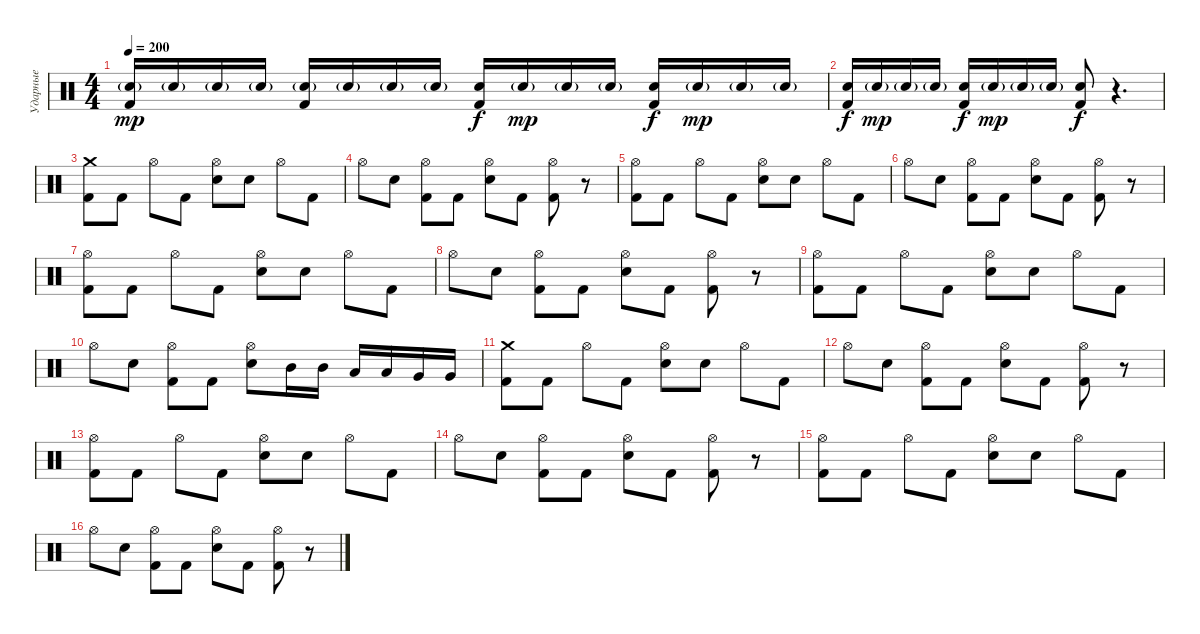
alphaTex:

\track ("Ударные" "Ударные") {instrument percussion}
\staff {score}
\articulation defaults
\ts (4 4)
\tempo 200
\clef neutral
\ks c
("Electric Snare (hit)"{g} "Kick (hit) 2").16{dy mp} "Electric Snare (hit)"{g}.16 "Electric Snare (hit)"{g}.16 "Electric Snare (hit)"{g}.16 ("Electric Snare (hit)"{g} "Kick (hit) 2").16 "Electric Snare (hit)"{g}.16 "Electric Snare (hit)"{g}.16 "Electric Snare (hit)"{g}.16 ("Electric Snare (hit)" "Kick (hit) 2").16{dy f} "Electric Snare (hit)"{g}.16{dy mp} "Electric Snare (hit)"{g}.16 "Electric Snare (hit)"{g}.16 ("Electric Snare (hit)" "Kick (hit) 2").16{dy f} "Electric Snare (hit)"{g}.16{dy mp} "Electric Snare (hit)"{g}.16 "Electric Snare (hit)"{g}.16 |
("Electric Snare (hit)" "Kick (hit) 2").16{dy f} "Electric Snare (hit)"{g}.16{dy mp} "Electric Snare (hit)"{g}.16 "Electric Snare (hit)"{g}.16 ("Electric Snare (hit)" "Kick (hit) 2").16{dy f} "Electric Snare (hit)"{g}.16{dy mp} "Electric Snare (hit)"{g}.16 "Electric Snare (hit)"{g}.16 ("Electric Snare (hit)" "Kick (hit) 2").8{dy f} r.4{d} |
("Crash medium (hit)" "Kick (hit) 2").8 "Kick (hit) 2".8 "Hi-Hat (open)".8 "Kick (hit) 2".8 ("Hi-Hat (open)" "Electric Snare (hit)").8 "Electric Snare (hit)".8 "Hi-Hat (open)".8 "Kick (hit) 2".8 |
"Hi-Hat (open)".8 "Electric Snare (hit)".8 ("Hi-Hat (open)" "Kick (hit) 2").8 "Kick (hit) 2".8 ("Hi-Hat (open)" "Electric Snare (hit)").8 "Kick (hit) 2".8 ("Hi-Hat (open)" "Kick (hit) 2").8 r.8 |
("Hi-Hat (open)" "Kick (hit) 2").8 "Kick (hit) 2".8 "Hi-Hat (open)".8 "Kick (hit) 2".8 ("Hi-Hat (open)" "Electric Snare (hit)").8 "Electric Snare (hit)".8 "Hi-Hat (open)".8 "Kick (hit) 2".8 |
"Hi-Hat (open)".8 "Electric Snare (hit)".8 ("Hi-Hat (open)" "Kick (hit) 2").8 "Kick (hit) 2".8 ("Hi-Hat (open)" "Electric Snare (hit)").8 "Kick (hit) 2".8 ("Hi-Hat (open)" "Kick (hit) 2").8 r.8 |
("Hi-Hat (open)" "Kick (hit) 2").8 "Kick (hit) 2".8 "Hi-Hat (open)".8 "Kick (hit) 2".8 ("Hi-Hat (open)" "Electric Snare (hit)").8 "Electric Snare (hit)".8 "Hi-Hat (open)".8 "Kick (hit) 2".8 |
"Hi-Hat (open)".8 "Electric Snare (hit)".8 ("Hi-Hat (open)" "Kick (hit) 2").8 "Kick (hit) 2".8 ("Hi-Hat (open)" "Electric Snare (hit)").8 "Kick (hit) 2".8 ("Hi-Hat (open)" "Kick (hit) 2").8 r.8 |
("Hi-Hat (open)" "Kick (hit) 2").8 "Kick (hit) 2".8 "Hi-Hat (open)".8 "Kick (hit) 2".8 ("Hi-Hat (open)" "Electric Snare (hit)").8 "Electric Snare (hit)".8 "Hi-Hat (open)".8 "Kick (hit) 2".8 |
"Hi-Hat (open)".8 "Electric Snare (hit)".8 ("Hi-Hat (open)" "Kick (hit) 2").8 "Kick (hit) 2".8 ("Hi-Hat (open)" "Electric Snare (hit)").8 "Mid Tom (hit)".16 "Mid Tom (hit)".16 "Low Tom (hit)".16 "Low Tom (hit)".16 "Very Low Tom (hit)".16 "Very Low Tom (hit)".16 |
("Crash medium (hit)" "Kick (hit) 2").8 "Kick (hit) 2".8 "Hi-Hat (open)".8 "Kick (hit) 2".8 ("Hi-Hat (open)" "Electric Snare (hit)").8 "Electric Snare (hit)".8 "Hi-Hat (open)".8 "Kick (hit) 2".8 |
"Hi-Hat (open)".8 "Electric Snare (hit)".8 ("Hi-Hat (open)" "Kick (hit) 2").8 "Kick (hit) 2".8 ("Hi-Hat (open)" "Electric Snare (hit)").8 "Kick (hit) 2".8 ("Hi-Hat (open)" "Kick (hit) 2").8 r.8 |
("Hi-Hat (open)" "Kick (hit) 2").8 "Kick (hit) 2".8 "Hi-Hat (open)".8 "Kick (hit) 2".8 ("Hi-Hat (open)" "Electric Snare (hit)").8 "Electric Snare (hit)".8 "Hi-Hat (open)".8 "Kick (hit) 2".8 |
"Hi-Hat (open)".8 "Electric Snare (hit)".8 ("Hi-Hat (open)" "Kick (hit) 2").8 "Kick (hit) 2".8 ("Hi-Hat (open)" "Electric Snare (hit)").8 "Kick (hit) 2".8 ("Hi-Hat (open)" "Kick (hit) 2").8 r.8 |
("Hi-Hat (open)" "Kick (hit) 2").8 "Kick (hit) 2".8 "Hi-Hat (open)".8 "Kick (hit) 2".8 ("Hi-Hat (open)" "Electric Snare (hit)").8 "Electric Snare (hit)".8 "Hi-Hat (open)".8 "Kick (hit) 2".8 |
"Hi-Hat (open)".8 "Electric Snare (hit)".8 ("Hi-Hat (open)" "Kick (hit) 2").8 "Kick (hit) 2".8 ("Hi-Hat (open)" "Electric Snare (hit)").8 "Kick (hit) 2".8 ("Hi-Hat (open)" "Kick (hit) 2").8 r.8
